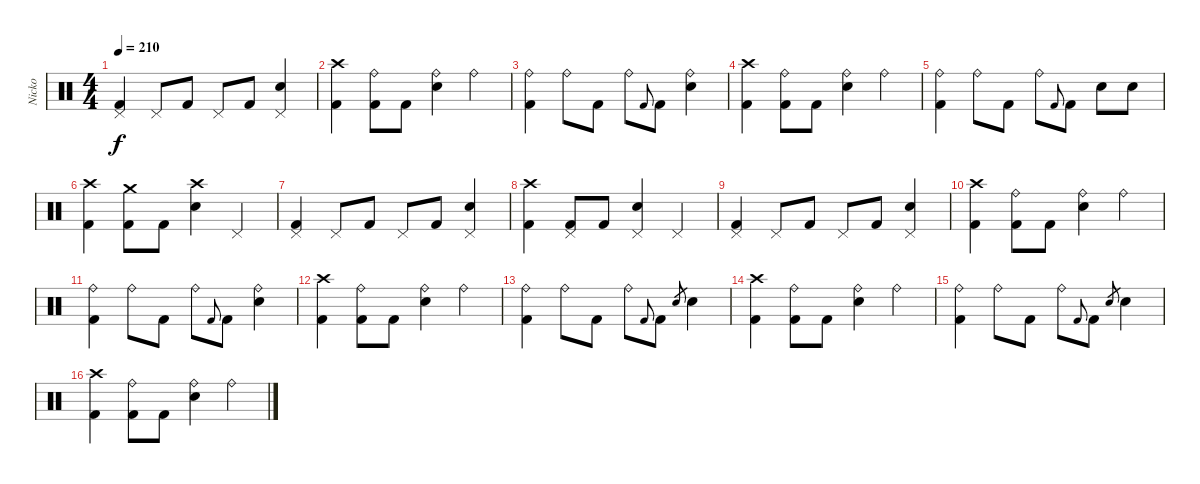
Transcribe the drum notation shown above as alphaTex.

\track ("Nicko" "Nicko") {instrument percussion}
\staff {score}
\articulation defaults
\ts (4 4)
\tempo 210
\clef neutral
\ks c
("Pedal Hi-Hat (hit)" "Kick (hit) 2").4{dy f} "Pedal Hi-Hat (hit)".8 "Kick (hit) 2".8 "Pedal Hi-Hat (hit)".8 "Kick (hit) 2".8 ("Pedal Hi-Hat (hit)" "Electric Snare (hit)").4 |
("Crash high (hit)" "Kick (hit) 2").4 ("Ride (bell)" "Kick (hit) 2").8 "Kick (hit) 2".8 ("Ride (bell)" "Electric Snare (hit)").4 "Ride (bell)".4 |
("Ride (bell)" "Kick (hit) 2").4 "Ride (bell)".8 "Kick (hit) 2".8 "Ride (bell)".8 "Kick (hit) 2"{h}.8{gr onbeat} "Kick (hit) 2".8 ("Ride (bell)" "Electric Snare (hit)").4 |
("Crash high (hit)" "Kick (hit) 2").4 ("Ride (bell)" "Kick (hit) 2").8 "Kick (hit) 2".8 ("Ride (bell)" "Electric Snare (hit)").4 "Ride (bell)".4 |
("Ride (bell)" "Kick (hit) 2").4 "Ride (bell)".8 "Kick (hit) 2".8 "Ride (bell)".8 "Kick (hit) 2"{h}.8{gr onbeat} "Kick (hit) 2".8 "Electric Snare (hit)".8 "Electric Snare (hit)".8 |
("Crash high (hit)" "Kick (hit) 2").4 ("Crash medium (hit)" "Kick (hit) 2").8 "Kick (hit) 2".8 ("Crash high (hit)" "Electric Snare (hit)").4 "Pedal Hi-Hat (hit)".4 |
("Pedal Hi-Hat (hit)" "Kick (hit) 2").4 "Pedal Hi-Hat (hit)".8 "Kick (hit) 2".8 "Pedal Hi-Hat (hit)".8 "Kick (hit) 2".8 ("Pedal Hi-Hat (hit)" "Electric Snare (hit)").4 |
("Crash high (hit)" "Kick (hit) 2").4 ("Pedal Hi-Hat (hit)" "Kick (hit) 2").8 "Kick (hit) 2".8 ("Pedal Hi-Hat (hit)" "Electric Snare (hit)").4 "Pedal Hi-Hat (hit)".4 |
("Pedal Hi-Hat (hit)" "Kick (hit) 2").4 "Pedal Hi-Hat (hit)".8 "Kick (hit) 2".8 "Pedal Hi-Hat (hit)".8 "Kick (hit) 2".8 ("Pedal Hi-Hat (hit)" "Electric Snare (hit)").4 |
("Crash high (hit)" "Kick (hit) 2").4 ("Ride (bell)" "Kick (hit) 2").8 "Kick (hit) 2".8 ("Ride (bell)" "Electric Snare (hit)").4 "Ride (bell)".4 |
("Ride (bell)" "Kick (hit) 2").4 "Ride (bell)".8 "Kick (hit) 2".8 "Ride (bell)".8 "Kick (hit) 2"{h}.8{gr onbeat} "Kick (hit) 2".8 ("Ride (bell)" "Electric Snare (hit)").4 |
("Crash high (hit)" "Kick (hit) 2").4 ("Ride (bell)" "Kick (hit) 2").8 "Kick (hit) 2".8 ("Ride (bell)" "Electric Snare (hit)").4 "Ride (bell)".4 |
("Ride (bell)" "Kick (hit) 2").4 "Ride (bell)".8 "Kick (hit) 2".8 "Ride (bell)".8 "Kick (hit) 2"{h}.8{gr onbeat} "Kick (hit) 2".8 "Electric Snare (hit)".8{gr} "Electric Snare (hit)".4 |
("Crash high (hit)" "Kick (hit) 2").4 ("Ride (bell)" "Kick (hit) 2").8 "Kick (hit) 2".8 ("Ride (bell)" "Electric Snare (hit)").4 "Ride (bell)".4 |
("Ride (bell)" "Kick (hit) 2").4 "Ride (bell)".8 "Kick (hit) 2".8 "Ride (bell)".8 "Kick (hit) 2"{h}.8{gr onbeat} "Kick (hit) 2".8 "Electric Snare (hit)".8{gr} "Electric Snare (hit)".4 |
("Crash high (hit)" "Kick (hit) 2").4 ("Ride (bell)" "Kick (hit) 2").8 "Kick (hit) 2".8 ("Ride (bell)" "Electric Snare (hit)").4 "Ride (bell)".4
